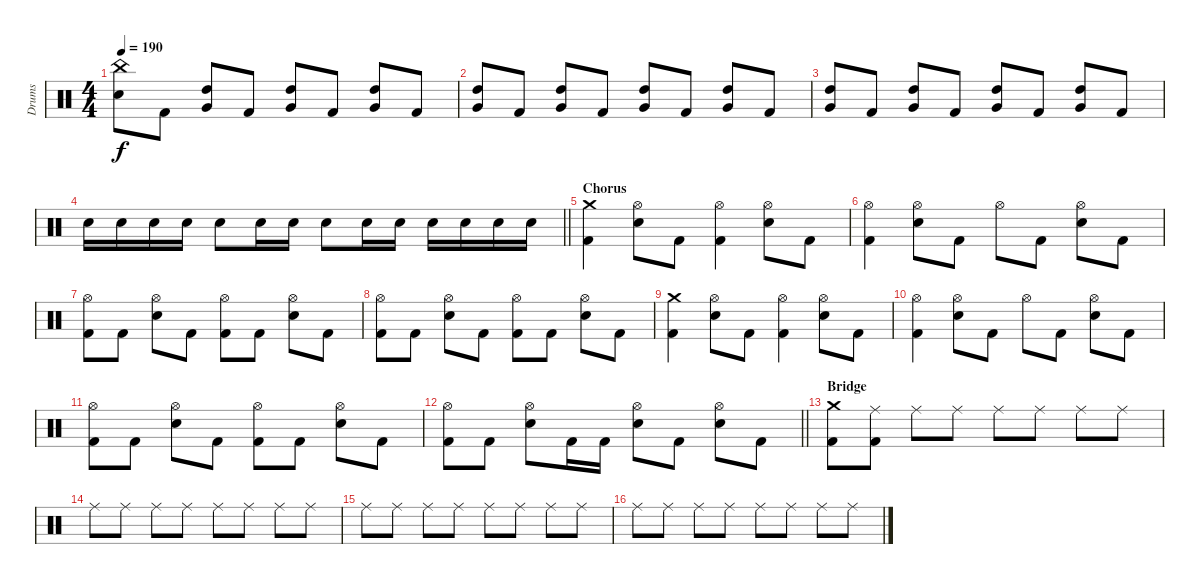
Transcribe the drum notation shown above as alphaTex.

\track ("Drums" "Drums") {instrument percussion}
\staff {score}
\articulation defaults
\ts (4 4)
\tempo 190
\clef neutral
\ks c
("China (hit)" "Snare (hit) 2").8{dy f} "Kick (hit) 2".8 ("High Tom (hit)" "Very Low Tom (hit)").8 "Kick (hit) 2".8 ("High Tom (hit)" "Very Low Tom (hit)").8 "Kick (hit) 2".8 ("High Tom (hit)" "Very Low Tom (hit)").8 "Kick (hit) 2".8 |
("High Tom (hit)" "Very Low Tom (hit)").8 "Kick (hit) 2".8 ("High Tom (hit)" "Very Low Tom (hit)").8 "Kick (hit) 2".8 ("High Tom (hit)" "Very Low Tom (hit)").8 "Kick (hit) 2".8 ("High Tom (hit)" "Very Low Tom (hit)").8 "Kick (hit) 2".8 |
("High Tom (hit)" "Very Low Tom (hit)").8 "Kick (hit) 2".8 ("High Tom (hit)" "Very Low Tom (hit)").8 "Kick (hit) 2".8 ("High Tom (hit)" "Very Low Tom (hit)").8 "Kick (hit) 2".8 ("High Tom (hit)" "Very Low Tom (hit)").8 "Kick (hit) 2".8 |
\barLineRight lightlight "Snare (hit) 2".16 "Snare (hit) 2".16 "Snare (hit) 2".16 "Snare (hit) 2".16 "Snare (hit) 2".8 "Snare (hit) 2".16 "Snare (hit) 2".16 "Snare (hit) 2".8 "Snare (hit) 2".16 "Snare (hit) 2".16 "Snare (hit) 2".16 "Snare (hit) 2".16 "Snare (hit) 2".16 "Snare (hit) 2".16
|
\section ("" "Chorus")
("Crash medium (hit)" "Kick (hit) 2").4 ("Hi-Hat (open)" "Snare (hit) 2").8 "Kick (hit) 2".8 ("Hi-Hat (open)" "Kick (hit) 2").4 ("Hi-Hat (open)" "Snare (hit) 2").8 "Kick (hit) 2".8 |
("Hi-Hat (open)" "Kick (hit) 2").4 ("Hi-Hat (open)" "Snare (hit) 2").8 "Kick (hit) 2".8 "Hi-Hat (open)".8 "Kick (hit) 2".8 ("Hi-Hat (open)" "Snare (hit) 2").8 "Kick (hit) 2".8 |
("Hi-Hat (open)" "Kick (hit) 2").8 "Kick (hit) 2".8 ("Hi-Hat (open)" "Snare (hit) 2").8 "Kick (hit) 2".8 ("Hi-Hat (open)" "Kick (hit) 2").8 "Kick (hit) 2".8 ("Hi-Hat (open)" "Snare (hit) 2").8 "Kick (hit) 2".8 |
("Hi-Hat (open)" "Kick (hit) 2").8 "Kick (hit) 2".8 ("Hi-Hat (open)" "Snare (hit) 2").8 "Kick (hit) 2".8 ("Hi-Hat (open)" "Kick (hit) 2").8 "Kick (hit) 2".8 ("Hi-Hat (open)" "Snare (hit) 2").8 "Kick (hit) 2".8 |
("Crash medium (hit)" "Kick (hit) 2").4 ("Hi-Hat (open)" "Snare (hit) 2").8 "Kick (hit) 2".8 ("Hi-Hat (open)" "Kick (hit) 2").4 ("Hi-Hat (open)" "Snare (hit) 2").8 "Kick (hit) 2".8 |
("Hi-Hat (open)" "Kick (hit) 2").4 ("Hi-Hat (open)" "Snare (hit) 2").8 "Kick (hit) 2".8 "Hi-Hat (open)".8 "Kick (hit) 2".8 ("Hi-Hat (open)" "Snare (hit) 2").8 "Kick (hit) 2".8 |
("Hi-Hat (open)" "Kick (hit) 2").8 "Kick (hit) 2".8 ("Hi-Hat (open)" "Snare (hit) 2").8 "Kick (hit) 2".8 ("Hi-Hat (open)" "Kick (hit) 2").8 "Kick (hit) 2".8 ("Hi-Hat (open)" "Snare (hit) 2").8 "Kick (hit) 2".8 |
\barLineRight lightlight
("Hi-Hat (open)" "Kick (hit) 2").8 "Kick (hit) 2".8 ("Hi-Hat (open)" "Snare (hit) 2").8 "Kick (hit) 2".16 "Kick (hit) 2".16 ("Hi-Hat (open)" "Snare (hit) 2").8 "Kick (hit) 2".8 ("Hi-Hat (open)" "Snare (hit) 2").8 "Kick (hit) 2".8 |
\section ("" "Bridge")
("Crash medium (hit)" "Kick (hit) 2").8 ("Ride (middle)" "Kick (hit) 2").8 "Ride (middle)".8 "Ride (middle)".8 "Ride (middle)".8 "Ride (middle)".8 "Ride (middle)".8 "Ride (middle)".8 |
"Ride (middle)".8 "Ride (middle)".8 "Ride (middle)".8 "Ride (middle)".8 "Ride (middle)".8 "Ride (middle)".8 "Ride (middle)".8 "Ride (middle)".8 |
"Ride (middle)".8 "Ride (middle)".8 "Ride (middle)".8 "Ride (middle)".8 "Ride (middle)".8 "Ride (middle)".8 "Ride (middle)".8 "Ride (middle)".8 |
"Ride (middle)".8 "Ride (middle)".8 "Ride (middle)".8 "Ride (middle)".8 "Ride (middle)".8 "Ride (middle)".8 "Ride (middle)".8 "Ride (middle)".8
